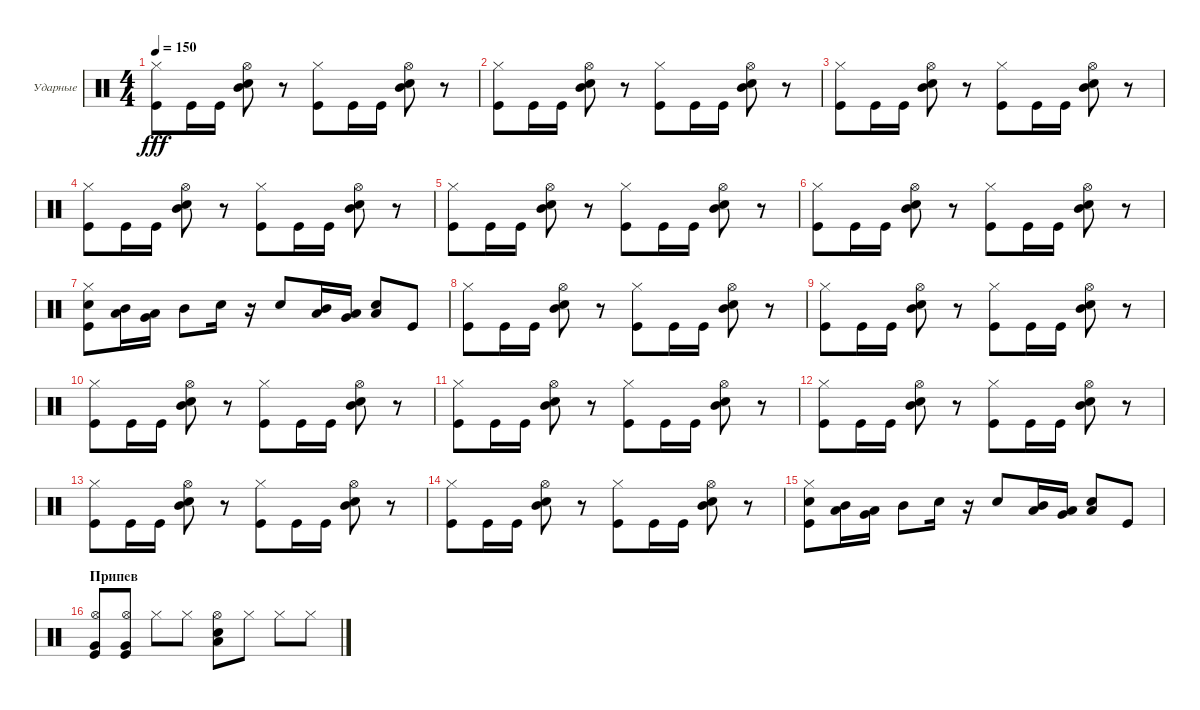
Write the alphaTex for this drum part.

\bracketExtendMode groupsimilarinstruments
\firstSystemTrackNameOrientation horizontal
\otherSystemsTrackNameOrientation horizontal
\track ("Максим Удалов" "Ударные") {instrument percussion}
\staff {score}
\articulation defaults
\ts (4 4)
\tempo 150
\clef neutral
\ks c
("Hi-Hat (closed)" "Kick (hit)").8{dy fff} "Kick (hit)".16 "Kick (hit)".16 ("Hi-Hat (open)" "Mid Tom (hit)" "Snare (hit) 2").8 r.8 ("Hi-Hat (closed)" "Kick (hit)").8 "Kick (hit)".16 "Kick (hit)".16 ("Hi-Hat (open)" "Mid Tom (hit)" "Snare (hit) 2").8 r.8 |
("Hi-Hat (closed)" "Kick (hit)").8 "Kick (hit)".16 "Kick (hit)".16 ("Hi-Hat (open)" "Mid Tom (hit)" "Snare (hit) 2").8 r.8 ("Hi-Hat (closed)" "Kick (hit)").8 "Kick (hit)".16 "Kick (hit)".16 ("Hi-Hat (open)" "Mid Tom (hit)" "Snare (hit) 2").8 r.8 |
("Hi-Hat (closed)" "Kick (hit)").8 "Kick (hit)".16 "Kick (hit)".16 ("Hi-Hat (open)" "Mid Tom (hit)" "Snare (hit) 2").8 r.8 ("Hi-Hat (closed)" "Kick (hit)").8 "Kick (hit)".16 "Kick (hit)".16 ("Hi-Hat (open)" "Mid Tom (hit)" "Snare (hit) 2").8 r.8 |
("Hi-Hat (closed)" "Kick (hit)").8 "Kick (hit)".16 "Kick (hit)".16 ("Hi-Hat (open)" "Mid Tom (hit)" "Snare (hit) 2").8 r.8 ("Hi-Hat (closed)" "Kick (hit)").8 "Kick (hit)".16 "Kick (hit)".16 ("Hi-Hat (open)" "Mid Tom (hit)" "Snare (hit) 2").8 r.8 |
("Hi-Hat (closed)" "Kick (hit)").8 "Kick (hit)".16 "Kick (hit)".16 ("Hi-Hat (open)" "Mid Tom (hit)" "Snare (hit) 2").8 r.8 ("Hi-Hat (closed)" "Kick (hit)").8 "Kick (hit)".16 "Kick (hit)".16 ("Hi-Hat (open)" "Mid Tom (hit)" "Snare (hit) 2").8 r.8 |
("Hi-Hat (closed)" "Kick (hit)").8 "Kick (hit)".16 "Kick (hit)".16 ("Hi-Hat (open)" "Mid Tom (hit)" "Snare (hit) 2").8 r.8 ("Hi-Hat (closed)" "Kick (hit)").8 "Kick (hit)".16 "Kick (hit)".16 ("Hi-Hat (open)" "Mid Tom (hit)" "Snare (hit) 2").8 r.8 |
("Hi-Hat (closed)" "Snare (hit) 2" "Kick (hit)").8 ("Mid Tom (hit)" "Low Tom (hit)").16 ("Low Tom (hit)" "Very Low Tom (hit)").16 "Mid Tom (hit)".8 "Snare (hit) 2".16 r.16 "Snare (hit) 2".8 ("Mid Tom (hit)" "Low Tom (hit)").16 ("Low Tom (hit)" "Very Low Tom (hit)").16 ("Snare (hit) 2" "Low Tom (hit)").8 "Kick (hit)".8 |
("Hi-Hat (closed)" "Kick (hit)").8 "Kick (hit)".16 "Kick (hit)".16 ("Hi-Hat (open)" "Mid Tom (hit)" "Snare (hit) 2").8 r.8 ("Hi-Hat (closed)" "Kick (hit)").8 "Kick (hit)".16 "Kick (hit)".16 ("Hi-Hat (open)" "Mid Tom (hit)" "Snare (hit) 2").8 r.8 |
("Hi-Hat (closed)" "Kick (hit)").8 "Kick (hit)".16 "Kick (hit)".16 ("Hi-Hat (open)" "Mid Tom (hit)" "Snare (hit) 2").8 r.8 ("Hi-Hat (closed)" "Kick (hit)").8 "Kick (hit)".16 "Kick (hit)".16 ("Hi-Hat (open)" "Mid Tom (hit)" "Snare (hit) 2").8 r.8 |
("Hi-Hat (closed)" "Kick (hit)").8 "Kick (hit)".16 "Kick (hit)".16 ("Hi-Hat (open)" "Mid Tom (hit)" "Snare (hit) 2").8 r.8 ("Hi-Hat (closed)" "Kick (hit)").8 "Kick (hit)".16 "Kick (hit)".16 ("Hi-Hat (open)" "Mid Tom (hit)" "Snare (hit) 2").8 r.8 |
("Hi-Hat (closed)" "Kick (hit)").8 "Kick (hit)".16 "Kick (hit)".16 ("Hi-Hat (open)" "Mid Tom (hit)" "Snare (hit) 2").8 r.8 ("Hi-Hat (closed)" "Kick (hit)").8 "Kick (hit)".16 "Kick (hit)".16 ("Hi-Hat (open)" "Mid Tom (hit)" "Snare (hit) 2").8 r.8 |
("Hi-Hat (closed)" "Kick (hit)").8 "Kick (hit)".16 "Kick (hit)".16 ("Hi-Hat (open)" "Mid Tom (hit)" "Snare (hit) 2").8 r.8 ("Hi-Hat (closed)" "Kick (hit)").8 "Kick (hit)".16 "Kick (hit)".16 ("Hi-Hat (open)" "Mid Tom (hit)" "Snare (hit) 2").8 r.8 |
("Hi-Hat (closed)" "Kick (hit)").8 "Kick (hit)".16 "Kick (hit)".16 ("Hi-Hat (open)" "Mid Tom (hit)" "Snare (hit) 2").8 r.8 ("Hi-Hat (closed)" "Kick (hit)").8 "Kick (hit)".16 "Kick (hit)".16 ("Hi-Hat (open)" "Mid Tom (hit)" "Snare (hit) 2").8 r.8 |
("Hi-Hat (closed)" "Kick (hit)").8 "Kick (hit)".16 "Kick (hit)".16 ("Hi-Hat (open)" "Mid Tom (hit)" "Snare (hit) 2").8 r.8 ("Hi-Hat (closed)" "Kick (hit)").8 "Kick (hit)".16 "Kick (hit)".16 ("Hi-Hat (open)" "Mid Tom (hit)" "Snare (hit) 2").8 r.8 |
("Hi-Hat (closed)" "Snare (hit) 2" "Kick (hit)").8 ("Mid Tom (hit)" "Low Tom (hit)").16 ("Low Tom (hit)" "Very Low Tom (hit)").16 "Mid Tom (hit)".8 "Snare (hit) 2".16 r.16 "Snare (hit) 2".8 ("Mid Tom (hit)" "Low Tom (hit)").16 ("Low Tom (hit)" "Very Low Tom (hit)").16 ("Snare (hit) 2" "Low Tom (hit)").8 "Kick (hit)".8 |
\section ("" "Припев")
("Hi-Hat (open)" "Very Low Tom (hit)" "Kick (hit)").8 ("Hi-Hat (open)" "Very Low Tom (hit)" "Kick (hit)").8 "Hi-Hat (closed)".8 "Hi-Hat (closed)".8 ("Hi-Hat (open)" "Low Tom (hit)" "Snare (hit) 2").8 "Hi-Hat (closed)".8 "Hi-Hat (closed)".8 "Hi-Hat (closed)".8
